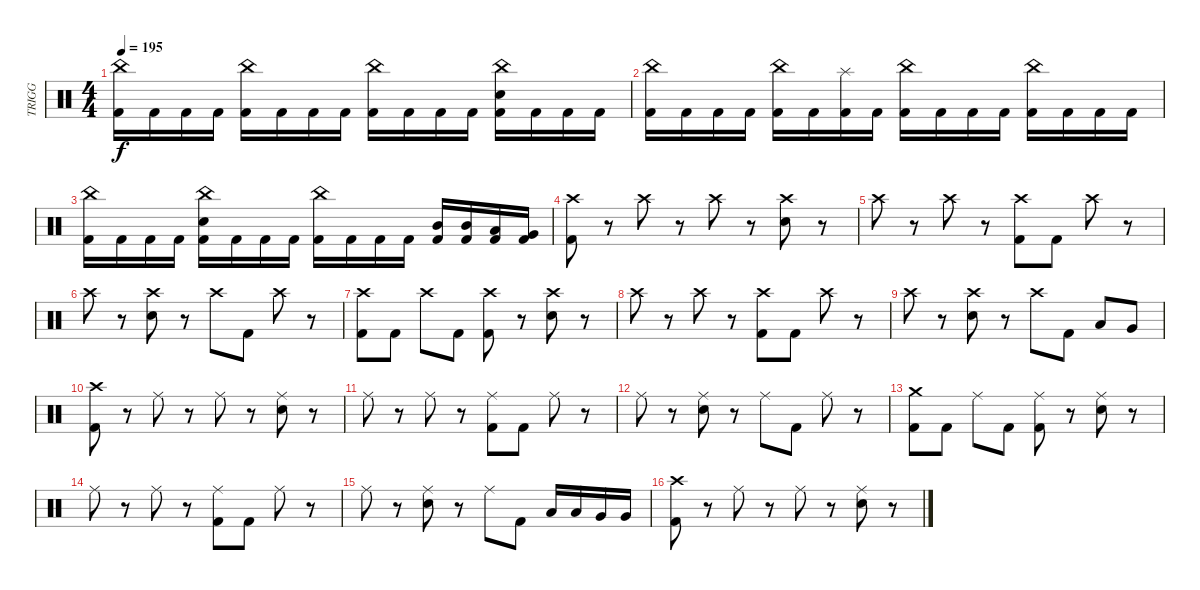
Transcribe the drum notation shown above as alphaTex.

\track ("TRIGG" "TRIGG") {instrument percussion}
\staff {score}
\articulation defaults
\ts (4 4)
\tempo 195
\clef neutral
\ks c
("China (hit)" "Kick (hit) 2").16{dy f} "Kick (hit) 2".16 "Kick (hit) 2".16 "Kick (hit) 2".16 ("China (hit)" "Kick (hit) 2").16 "Kick (hit) 2".16 "Kick (hit) 2".16 "Kick (hit) 2".16 ("China (hit)" "Kick (hit) 2").16 "Kick (hit) 2".16 "Kick (hit) 2".16 "Kick (hit) 2".16 ("China (hit)" "Electric Snare (hit)" "Kick (hit) 2").16 "Kick (hit) 2".16 "Kick (hit) 2".16 "Kick (hit) 2".16 |
("China (hit)" "Kick (hit) 2").16 "Kick (hit) 2".16 "Kick (hit) 2".16 "Kick (hit) 2".16 ("China (hit)" "Kick (hit) 2").16 "Kick (hit) 2".16 ("Splash (hit)" "Kick (hit) 2").16 "Kick (hit) 2".16 ("China (hit)" "Kick (hit) 2").16 "Kick (hit) 2".16 "Kick (hit) 2".16 "Kick (hit) 2".16 ("China (hit)" "Kick (hit) 2").16 "Kick (hit) 2".16 "Kick (hit) 2".16 "Kick (hit) 2".16 |
("China (hit)" "Kick (hit) 2").16 "Kick (hit) 2".16 "Kick (hit) 2".16 "Kick (hit) 2".16 ("China (hit)" "Electric Snare (hit)" "Kick (hit) 2").16 "Kick (hit) 2".16 "Kick (hit) 2".16 "Kick (hit) 2".16 ("China (hit)" "Kick (hit) 2").16 "Kick (hit) 2".16 "Kick (hit) 2".16 "Kick (hit) 2".16 ("Mid Tom (hit)" "Kick (hit) 2").16 ("Mid Tom (hit)" "Kick (hit) 2").16 ("Low Tom (hit)" "Kick (hit) 2").16 ("Very Low Tom (hit)" "Kick (hit) 2").16 |
("Crash high (hit)" "Kick (hit) 2").8 r.8 "Crash high (hit)".8 r.8 "Crash high (hit)".8 r.8 ("Crash high (hit)" "Electric Snare (hit)").8 r.8 |
"Crash high (hit)".8 r.8 "Crash high (hit)".8 r.8 ("Crash high (hit)" "Kick (hit) 2").8 "Kick (hit) 2".8 "Crash high (hit)".8 r.8 |
"Crash high (hit)".8 r.8 ("Crash high (hit)" "Electric Snare (hit)").8 r.8 "Crash high (hit)".8 "Kick (hit) 2".8 "Crash high (hit)".8 r.8 |
("Crash high (hit)" "Kick (hit) 2").8 "Kick (hit) 2".8 "Crash high (hit)".8 "Kick (hit) 2".8 ("Crash high (hit)" "Kick (hit) 2").8 r.8 ("Crash high (hit)" "Electric Snare (hit)").8 r.8 |
"Crash high (hit)".8 r.8 "Crash high (hit)".8 r.8 ("Crash high (hit)" "Kick (hit) 2").8 "Kick (hit) 2".8 "Crash high (hit)".8 r.8 |
"Crash high (hit)".8 r.8 ("Crash high (hit)" "Electric Snare (hit)").8 r.8 "Crash high (hit)".8 "Kick (hit) 2".8 "Low Tom (hit)".8 "Very Low Tom (hit)".8 |
("Crash high (hit)" "Kick (hit) 2").8 r.8 "Ride (middle)".8 r.8 "Ride (middle)".8 r.8 ("Ride (middle)" "Electric Snare (hit)").8 r.8 |
"Ride (middle)".8 r.8 "Ride (middle)".8 r.8 ("Ride (middle)" "Kick (hit) 2").8 "Kick (hit) 2".8 "Ride (middle)".8 r.8 |
"Ride (middle)".8 r.8 ("Ride (middle)" "Electric Snare (hit)").8 r.8 "Ride (middle)".8 "Kick (hit) 2".8 "Ride (middle)".8 r.8 |
("Crash medium (hit)" "Kick (hit) 2").8 "Kick (hit) 2".8 "Ride (middle)".8 "Kick (hit) 2".8 ("Ride (middle)" "Kick (hit) 2").8 r.8 ("Ride (middle)" "Electric Snare (hit)").8 r.8 |
"Ride (middle)".8 r.8 "Ride (middle)".8 r.8 ("Ride (middle)" "Kick (hit) 2").8 "Kick (hit) 2".8 "Ride (middle)".8 r.8 |
"Ride (middle)".8 r.8 ("Ride (middle)" "Electric Snare (hit)").8 r.8 "Ride (middle)".8 "Kick (hit) 2".8 "Low Tom (hit)".16 "Low Tom (hit)".16 "Very Low Tom (hit)".16 "Very Low Tom (hit)".16 |
("Crash high (hit)" "Kick (hit) 2").8 r.8 "Ride (middle)".8 r.8 "Ride (middle)".8 r.8 ("Ride (middle)" "Electric Snare (hit)").8 r.8
